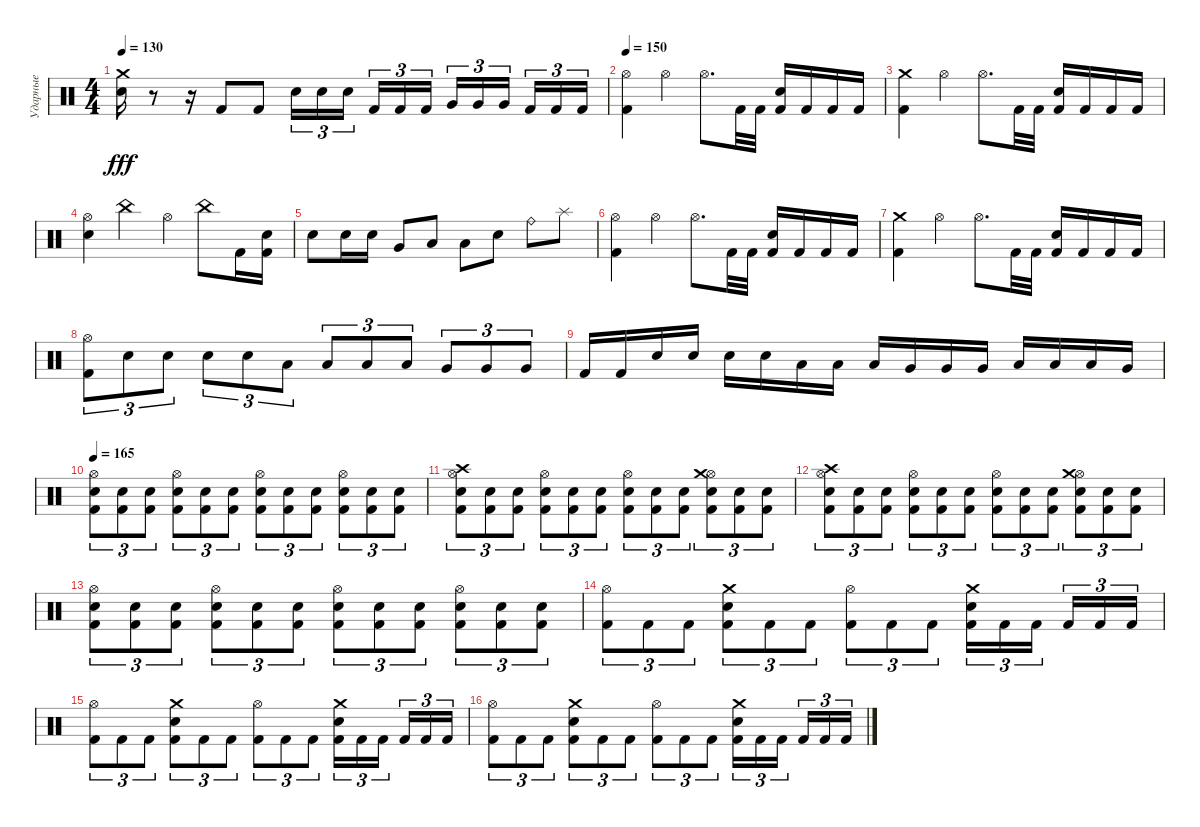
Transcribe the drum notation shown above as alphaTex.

\track ("Ударные" "Ударные") {instrument percussion}
\staff {score}
\articulation defaults
\ts (4 4)
\tempo 130
\clef neutral
\ks c
("Crash medium (hit)" "Electric Snare (hit)").16{dy fff} r.8 r.16 "Kick (hit) 2".8 "Kick (hit) 2".8 "Electric Snare (hit)".16{tu (3 2)} "Electric Snare (hit)".16{tu (3 2)} "Electric Snare (hit)".16{tu (3 2) beam splitsecondary} "Kick (hit) 2".16{tu (3 2)} "Kick (hit) 2".16{tu (3 2)} "Kick (hit) 2".16{tu (3 2)} "Very Low Tom (hit)".16{tu (3 2)} "Very Low Tom (hit)".16{tu (3 2)} "Very Low Tom (hit)".16{tu (3 2) beam splitsecondary} "Kick (hit) 2".16{tu (3 2)} "Kick (hit) 2".16{tu (3 2)} "Kick (hit) 2".16{tu (3 2)} |
\tempo 150
("Kick (hit) 2" "Hi-Hat (open)").4 "Hi-Hat (open)".4 "Hi-Hat (open)".8{d} "Kick (hit) 2".32 "Kick (hit) 2".32 ("Electric Snare (hit)" "Kick (hit) 2").16 "Kick (hit) 2".16 "Kick (hit) 2".16 "Kick (hit) 2".16 |
("Kick (hit) 2" "Crash medium (hit)").4 "Hi-Hat (open)".4 "Hi-Hat (open)".8{d} "Kick (hit) 2".32 "Kick (hit) 2".32 ("Electric Snare (hit)" "Kick (hit) 2").16 "Kick (hit) 2".16 "Kick (hit) 2".16 "Kick (hit) 2".16 |
("Electric Snare (hit)" "Hi-Hat (open)").4 "China (hit)".4 "Hi-Hat (open)".4 "China (hit)".8 "Kick (hit) 2".16 ("Electric Snare (hit)" "Kick (hit) 2").16 |
"Electric Snare (hit)".8 "Electric Snare (hit)".16 "Electric Snare (hit)".16 "Very Low Tom (hit)".8 "Low Tom (hit)".8 "Low Tom (hit)".8 "Electric Snare (hit)".8 "Ride (bell)".8 "Splash (hit)".8 |
("Kick (hit) 2" "Hi-Hat (open)").4 "Hi-Hat (open)".4 "Hi-Hat (open)".8{d} "Kick (hit) 2".32 "Kick (hit) 2".32 ("Electric Snare (hit)" "Kick (hit) 2").16 "Kick (hit) 2".16 "Kick (hit) 2".16 "Kick (hit) 2".16 |
("Kick (hit) 2" "Crash medium (hit)").4 "Hi-Hat (open)".4 "Hi-Hat (open)".8{d} "Kick (hit) 2".32 "Kick (hit) 2".32 ("Electric Snare (hit)" "Kick (hit) 2").16 "Kick (hit) 2".16 "Kick (hit) 2".16 "Kick (hit) 2".16 |
("Kick (hit) 2" "Hi-Hat (open)").8{tu (3 2)} "Electric Snare (hit)".8{tu (3 2)} "Electric Snare (hit)".8{tu (3 2)} "Electric Snare (hit)".8{tu (3 2)} "Electric Snare (hit)".8{tu (3 2)} "Low Floor Tom (hit)".8{tu (3 2)} "Low Floor Tom (hit)".8{tu (3 2)} "Low Floor Tom (hit)".8{tu (3 2)} "Low Floor Tom (hit)".8{tu (3 2)} "Very Low Tom (hit)".8{tu (3 2)} "Very Low Tom (hit)".8{tu (3 2)} "Very Low Tom (hit)".8{tu (3 2)} |
"Kick (hit) 2".16 "Kick (hit) 2".16 "Electric Snare (hit)".16 "Electric Snare (hit)".16 "Electric Snare (hit)".16 "Electric Snare (hit)".16 "Low Tom (hit)".16 "Low Tom (hit)".16 "Low Tom (hit)".16 "Very Low Tom (hit)".16 "Very Low Tom (hit)".16 "Very Low Tom (hit)".16 "Low Floor Tom (hit)".16 "Low Floor Tom (hit)".16 "Low Floor Tom (hit)".16 "Very Low Tom (hit)".16 |
\tempo 165
("Hi-Hat (open)" "Electric Snare (hit)" "Kick (hit) 2").8{tu (3 2)} ("Electric Snare (hit)" "Kick (hit) 2").8{tu (3 2)} ("Electric Snare (hit)" "Kick (hit) 2").8{tu (3 2)} ("Hi-Hat (open)" "Electric Snare (hit)" "Kick (hit) 2").8{tu (3 2)} ("Electric Snare (hit)" "Kick (hit) 2").8{tu (3 2)} ("Electric Snare (hit)" "Kick (hit) 2").8{tu (3 2)} ("Hi-Hat (open)" "Electric Snare (hit)" "Kick (hit) 2").8{tu (3 2)} ("Electric Snare (hit)" "Kick (hit) 2").8{tu (3 2)} ("Electric Snare (hit)" "Kick (hit) 2").8{tu (3 2)} ("Hi-Hat (open)" "Electric Snare (hit)" "Kick (hit) 2").8{tu (3 2)} ("Electric Snare (hit)" "Kick (hit) 2").8{tu (3 2)} ("Electric Snare (hit)" "Kick (hit) 2").8{tu (3 2)} |
("Crash high (hit)" "Hi-Hat (open)" "Electric Snare (hit)" "Kick (hit) 2").8{tu (3 2)} ("Electric Snare (hit)" "Kick (hit) 2").8{tu (3 2)} ("Electric Snare (hit)" "Kick (hit) 2").8{tu (3 2)} ("Hi-Hat (open)" "Electric Snare (hit)" "Kick (hit) 2").8{tu (3 2)} ("Electric Snare (hit)" "Kick (hit) 2").8{tu (3 2)} ("Electric Snare (hit)" "Kick (hit) 2").8{tu (3 2)} ("Hi-Hat (open)" "Electric Snare (hit)" "Kick (hit) 2").8{tu (3 2)} ("Electric Snare (hit)" "Kick (hit) 2").8{tu (3 2)} ("Electric Snare (hit)" "Kick (hit) 2").8{tu (3 2)} ("Hi-Hat (open)" "Crash medium (hit)" "Electric Snare (hit)" "Kick (hit) 2").8{tu (3 2)} ("Electric Snare (hit)" "Kick (hit) 2").8{tu (3 2)} ("Electric Snare (hit)" "Kick (hit) 2").8{tu (3 2)} |
("Crash high (hit)" "Hi-Hat (open)" "Electric Snare (hit)" "Kick (hit) 2").8{tu (3 2)} ("Electric Snare (hit)" "Kick (hit) 2").8{tu (3 2)} ("Electric Snare (hit)" "Kick (hit) 2").8{tu (3 2)} ("Hi-Hat (open)" "Electric Snare (hit)" "Kick (hit) 2").8{tu (3 2)} ("Electric Snare (hit)" "Kick (hit) 2").8{tu (3 2)} ("Electric Snare (hit)" "Kick (hit) 2").8{tu (3 2)} ("Hi-Hat (open)" "Electric Snare (hit)" "Kick (hit) 2").8{tu (3 2)} ("Electric Snare (hit)" "Kick (hit) 2").8{tu (3 2)} ("Electric Snare (hit)" "Kick (hit) 2").8{tu (3 2)} ("Hi-Hat (open)" "Crash medium (hit)" "Electric Snare (hit)" "Kick (hit) 2").8{tu (3 2)} ("Electric Snare (hit)" "Kick (hit) 2").8{tu (3 2)} ("Electric Snare (hit)" "Kick (hit) 2").8{tu (3 2)} |
("Hi-Hat (open)" "Electric Snare (hit)" "Kick (hit) 2").8{tu (3 2)} ("Electric Snare (hit)" "Kick (hit) 2").8{tu (3 2)} ("Electric Snare (hit)" "Kick (hit) 2").8{tu (3 2)} ("Hi-Hat (open)" "Electric Snare (hit)" "Kick (hit) 2").8{tu (3 2)} ("Electric Snare (hit)" "Kick (hit) 2").8{tu (3 2)} ("Electric Snare (hit)" "Kick (hit) 2").8{tu (3 2)} ("Hi-Hat (open)" "Electric Snare (hit)" "Kick (hit) 2").8{tu (3 2)} ("Electric Snare (hit)" "Kick (hit) 2").8{tu (3 2)} ("Electric Snare (hit)" "Kick (hit) 2").8{tu (3 2)} ("Hi-Hat (open)" "Electric Snare (hit)" "Kick (hit) 2").8{tu (3 2)} ("Electric Snare (hit)" "Kick (hit) 2").8{tu (3 2)} ("Electric Snare (hit)" "Kick (hit) 2").8{tu (3 2)} |
("Kick (hit) 2" "Hi-Hat (open)").8{tu (3 2)} "Kick (hit) 2".8{tu (3 2)} "Kick (hit) 2".8{tu (3 2)} ("Kick (hit) 2" "Crash medium (hit)" "Electric Snare (hit)").8{tu (3 2)} "Kick (hit) 2".8{tu (3 2)} "Kick (hit) 2".8{tu (3 2)} ("Kick (hit) 2" "Hi-Hat (open)").8{tu (3 2)} "Kick (hit) 2".8{tu (3 2)} "Kick (hit) 2".8{tu (3 2)} ("Kick (hit) 2" "Electric Snare (hit)" "Crash medium (hit)").16{tu (3 2)} "Kick (hit) 2".16{tu (3 2)} "Kick (hit) 2".16{tu (3 2) beam splitsecondary} "Kick (hit) 2".16{tu (3 2)} "Kick (hit) 2".16{tu (3 2)} "Kick (hit) 2".16{tu (3 2)} |
("Kick (hit) 2" "Hi-Hat (open)").8{tu (3 2)} "Kick (hit) 2".8{tu (3 2)} "Kick (hit) 2".8{tu (3 2)} ("Kick (hit) 2" "Crash medium (hit)" "Electric Snare (hit)").8{tu (3 2)} "Kick (hit) 2".8{tu (3 2)} "Kick (hit) 2".8{tu (3 2)} ("Kick (hit) 2" "Hi-Hat (open)").8{tu (3 2)} "Kick (hit) 2".8{tu (3 2)} "Kick (hit) 2".8{tu (3 2)} ("Kick (hit) 2" "Electric Snare (hit)" "Crash medium (hit)").16{tu (3 2)} "Kick (hit) 2".16{tu (3 2)} "Kick (hit) 2".16{tu (3 2) beam splitsecondary} "Kick (hit) 2".16{tu (3 2)} "Kick (hit) 2".16{tu (3 2)} "Kick (hit) 2".16{tu (3 2)} |
("Kick (hit) 2" "Hi-Hat (open)").8{tu (3 2)} "Kick (hit) 2".8{tu (3 2)} "Kick (hit) 2".8{tu (3 2)} ("Kick (hit) 2" "Crash medium (hit)" "Electric Snare (hit)").8{tu (3 2)} "Kick (hit) 2".8{tu (3 2)} "Kick (hit) 2".8{tu (3 2)} ("Kick (hit) 2" "Hi-Hat (open)").8{tu (3 2)} "Kick (hit) 2".8{tu (3 2)} "Kick (hit) 2".8{tu (3 2)} ("Kick (hit) 2" "Electric Snare (hit)" "Crash medium (hit)").16{tu (3 2)} "Kick (hit) 2".16{tu (3 2)} "Kick (hit) 2".16{tu (3 2) beam splitsecondary} "Kick (hit) 2".16{tu (3 2)} "Kick (hit) 2".16{tu (3 2)} "Kick (hit) 2".16{tu (3 2)}
